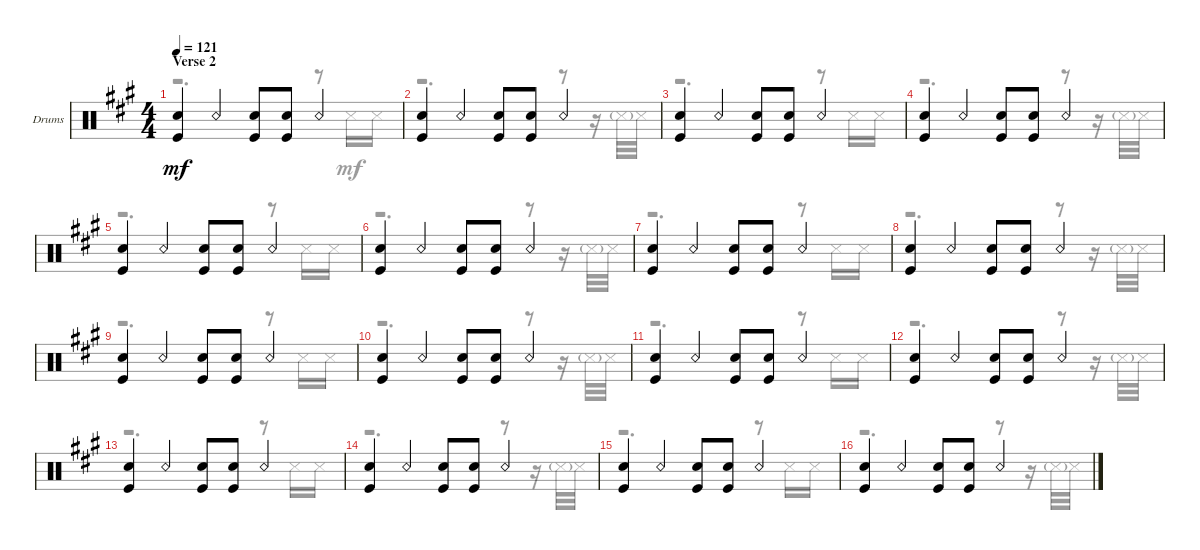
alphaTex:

\defaultSystemsLayout 4
\bracketExtendMode groupsimilarinstruments
\firstSystemTrackNameOrientation horizontal
\otherSystemsTrackNameOrientation horizontal
\track ("Drumkit" "Drums") {instrument percussion}
\staff {score}
\articulation defaults
\voice
\ts (4 4)
\section ("" "Verse 2")
\tempo 121
\clef neutral
\ks a
("Kick (hit)" "Snare (hit) 2").4{dy mf} "Snare (rim shot)".4 ("Kick (hit)" "Snare (hit) 2").8 ("Kick (hit)" "Snare (hit) 2").8 "Snare (rim shot)".4 |
("Kick (hit)" "Snare (hit) 2").4 "Snare (rim shot)".4 ("Kick (hit)" "Snare (hit) 2").8 ("Kick (hit)" "Snare (hit) 2").8 "Snare (rim shot)".4 |
("Kick (hit)" "Snare (hit) 2").4 "Snare (rim shot)".4 ("Kick (hit)" "Snare (hit) 2").8 ("Kick (hit)" "Snare (hit) 2").8 "Snare (rim shot)".4 |
("Kick (hit)" "Snare (hit) 2").4 "Snare (rim shot)".4 ("Kick (hit)" "Snare (hit) 2").8 ("Kick (hit)" "Snare (hit) 2").8 "Snare (rim shot)".4 |
("Kick (hit)" "Snare (hit) 2").4 "Snare (rim shot)".4 ("Kick (hit)" "Snare (hit) 2").8 ("Kick (hit)" "Snare (hit) 2").8 "Snare (rim shot)".4 |
("Kick (hit)" "Snare (hit) 2").4 "Snare (rim shot)".4 ("Kick (hit)" "Snare (hit) 2").8 ("Kick (hit)" "Snare (hit) 2").8 "Snare (rim shot)".4 |
("Kick (hit)" "Snare (hit) 2").4 "Snare (rim shot)".4 ("Kick (hit)" "Snare (hit) 2").8 ("Kick (hit)" "Snare (hit) 2").8 "Snare (rim shot)".4 |
("Kick (hit)" "Snare (hit) 2").4 "Snare (rim shot)".4 ("Kick (hit)" "Snare (hit) 2").8 ("Kick (hit)" "Snare (hit) 2").8 "Snare (rim shot)".4 |
("Kick (hit)" "Snare (hit) 2").4 "Snare (rim shot)".4 ("Kick (hit)" "Snare (hit) 2").8 ("Kick (hit)" "Snare (hit) 2").8 "Snare (rim shot)".4 |
("Kick (hit)" "Snare (hit) 2").4 "Snare (rim shot)".4 ("Kick (hit)" "Snare (hit) 2").8 ("Kick (hit)" "Snare (hit) 2").8 "Snare (rim shot)".4 |
("Kick (hit)" "Snare (hit) 2").4 "Snare (rim shot)".4 ("Kick (hit)" "Snare (hit) 2").8 ("Kick (hit)" "Snare (hit) 2").8 "Snare (rim shot)".4 |
("Kick (hit)" "Snare (hit) 2").4 "Snare (rim shot)".4 ("Kick (hit)" "Snare (hit) 2").8 ("Kick (hit)" "Snare (hit) 2").8 "Snare (rim shot)".4 |
("Kick (hit)" "Snare (hit) 2").4 "Snare (rim shot)".4 ("Kick (hit)" "Snare (hit) 2").8 ("Kick (hit)" "Snare (hit) 2").8 "Snare (rim shot)".4 |
("Kick (hit)" "Snare (hit) 2").4 "Snare (rim shot)".4 ("Kick (hit)" "Snare (hit) 2").8 ("Kick (hit)" "Snare (hit) 2").8 "Snare (rim shot)".4 |
("Kick (hit)" "Snare (hit) 2").4 "Snare (rim shot)".4 ("Kick (hit)" "Snare (hit) 2").8 ("Kick (hit)" "Snare (hit) 2").8 "Snare (rim shot)".4 |
("Kick (hit)" "Snare (hit) 2").4 "Snare (rim shot)".4 ("Kick (hit)" "Snare (hit) 2").8 ("Kick (hit)" "Snare (hit) 2").8 "Snare (rim shot)".4
\voice
\clef neutral
\ottava regular
\simile none
\ks a
r.2{d dy mf} r.8 "Snare (side stick) 3".16 "Snare (side stick) 3".16 |
r.2{d} r.8 r.16 "Snare (side stick) 3"{g}.32 "Snare (side stick) 3".32 |
r.2{d} r.8 "Snare (side stick) 3".16 "Snare (side stick) 3".16 |
r.2{d} r.8 r.16 "Snare (side stick) 3"{g}.32 "Snare (side stick) 3".32 |
r.2{d} r.8 "Snare (side stick) 3".16 "Snare (side stick) 3".16 |
r.2{d} r.8 r.16 "Snare (side stick) 3"{g}.32 "Snare (side stick) 3".32 |
r.2{d} r.8 "Snare (side stick) 3".16 "Snare (side stick) 3".16 |
r.2{d} r.8 r.16 "Snare (side stick) 3"{g}.32 "Snare (side stick) 3".32 |
r.2{d} r.8 "Snare (side stick) 3".16 "Snare (side stick) 3".16 |
r.2{d} r.8 r.16 "Snare (side stick) 3"{g}.32 "Snare (side stick) 3".32 |
r.2{d} r.8 "Snare (side stick) 3".16 "Snare (side stick) 3".16 |
r.2{d} r.8 r.16 "Snare (side stick) 3"{g}.32 "Snare (side stick) 3".32 |
r.2{d} r.8 "Snare (side stick) 3".16 "Snare (side stick) 3".16 |
r.2{d} r.8 r.16 "Snare (side stick) 3"{g}.32 "Snare (side stick) 3".32 |
r.2{d} r.8 "Snare (side stick) 3".16 "Snare (side stick) 3".16 |
r.2{d} r.8 r.16 "Snare (side stick) 3"{g}.32 "Snare (side stick) 3".32
